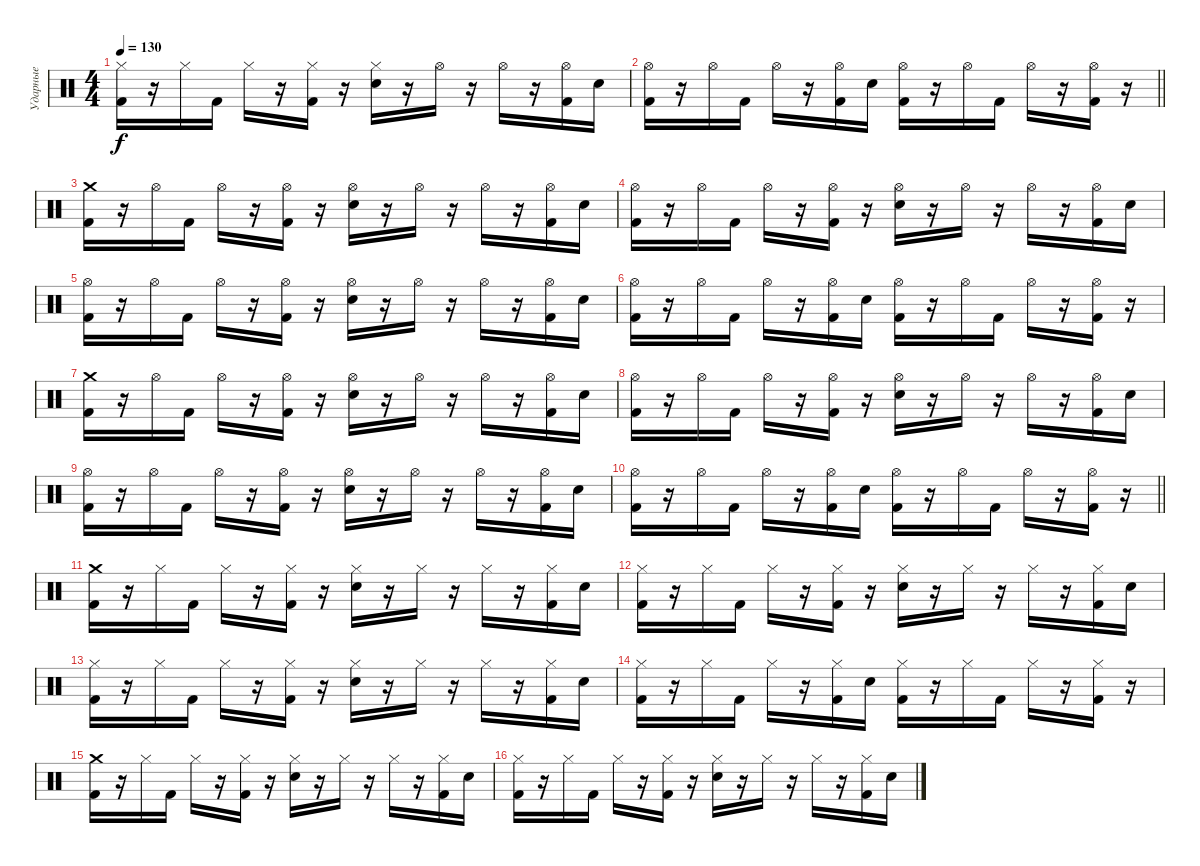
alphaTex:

\track ("Ударные" "Ударные") {instrument percussion}
\staff {score}
\articulation defaults
\ts (4 4)
\tempo 130
\clef neutral
\ks c
("Hi-Hat (closed)" "Kick (hit) 2").16{dy f} r.16 "Hi-Hat (closed)".16 "Kick (hit) 2".16 "Hi-Hat (closed)".16 r.16 ("Hi-Hat (closed)" "Kick (hit) 2").16 r.16 ("Hi-Hat (closed)" "Electric Snare (hit)").16 r.16 "Hi-Hat (open)".16{volume 6} r.16 "Hi-Hat (open)".16{volume 9} r.16 ("Hi-Hat (open)" "Kick (hit) 2").16{volume 9} "Electric Snare (hit)".16 |
\barLineRight lightlight
("Hi-Hat (open)" "Kick (hit) 2").16{volume 10} r.16 "Hi-Hat (open)".16{volume 10} "Kick (hit) 2".16 "Hi-Hat (open)".16{volume 11} r.16 ("Hi-Hat (open)" "Kick (hit) 2").16{volume 11} "Electric Snare (hit)".16 ("Hi-Hat (open)" "Kick (hit) 2").16{volume 12} r.16 "Hi-Hat (open)".16{volume 13} "Kick (hit) 2".16 "Hi-Hat (open)".16{volume 16} r.16 ("Hi-Hat (open)" "Kick (hit) 2").16{volume 15} r.16 |
\section ("" "")
("Crash medium (hit)" "Kick (hit) 2").16 r.16 "Hi-Hat (open)".16 "Kick (hit) 2".16 "Hi-Hat (open)".16 r.16 ("Hi-Hat (open)" "Kick (hit) 2").16 r.16 ("Hi-Hat (open)" "Electric Snare (hit)").16 r.16 "Hi-Hat (open)".16 r.16 "Hi-Hat (open)".16 r.16 ("Hi-Hat (open)" "Kick (hit) 2").16 "Electric Snare (hit)".16 |
("Hi-Hat (open)" "Kick (hit) 2").16 r.16 "Hi-Hat (open)".16 "Kick (hit) 2".16 "Hi-Hat (open)".16 r.16 ("Hi-Hat (open)" "Kick (hit) 2").16 r.16 ("Hi-Hat (open)" "Electric Snare (hit)").16 r.16 "Hi-Hat (open)".16 r.16 "Hi-Hat (open)".16 r.16 ("Hi-Hat (open)" "Kick (hit) 2").16 "Electric Snare (hit)".16 |
("Hi-Hat (open)" "Kick (hit) 2").16 r.16 "Hi-Hat (open)".16 "Kick (hit) 2".16 "Hi-Hat (open)".16 r.16 ("Hi-Hat (open)" "Kick (hit) 2").16 r.16 ("Hi-Hat (open)" "Electric Snare (hit)").16 r.16 "Hi-Hat (open)".16 r.16 "Hi-Hat (open)".16 r.16 ("Hi-Hat (open)" "Kick (hit) 2").16 "Electric Snare (hit)".16 |
("Hi-Hat (open)" "Kick (hit) 2").16 r.16 "Hi-Hat (open)".16 "Kick (hit) 2".16 "Hi-Hat (open)".16 r.16 ("Hi-Hat (open)" "Kick (hit) 2").16 "Electric Snare (hit)".16 ("Hi-Hat (open)" "Kick (hit) 2").16 r.16 "Hi-Hat (open)".16 "Kick (hit) 2".16 "Hi-Hat (open)".16 r.16 ("Hi-Hat (open)" "Kick (hit) 2").16 r.16 |
("Crash medium (hit)" "Kick (hit) 2").16 r.16 "Hi-Hat (open)".16 "Kick (hit) 2".16 "Hi-Hat (open)".16 r.16 ("Hi-Hat (open)" "Kick (hit) 2").16 r.16 ("Hi-Hat (open)" "Electric Snare (hit)").16 r.16 "Hi-Hat (open)".16 r.16 "Hi-Hat (open)".16 r.16 ("Hi-Hat (open)" "Kick (hit) 2").16 "Electric Snare (hit)".16 |
("Hi-Hat (open)" "Kick (hit) 2").16 r.16 "Hi-Hat (open)".16 "Kick (hit) 2".16 "Hi-Hat (open)".16 r.16 ("Hi-Hat (open)" "Kick (hit) 2").16 r.16 ("Hi-Hat (open)" "Electric Snare (hit)").16 r.16 "Hi-Hat (open)".16 r.16 "Hi-Hat (open)".16 r.16 ("Hi-Hat (open)" "Kick (hit) 2").16 "Electric Snare (hit)".16 |
("Hi-Hat (open)" "Kick (hit) 2").16 r.16 "Hi-Hat (open)".16 "Kick (hit) 2".16 "Hi-Hat (open)".16 r.16 ("Hi-Hat (open)" "Kick (hit) 2").16 r.16 ("Hi-Hat (open)" "Electric Snare (hit)").16 r.16 "Hi-Hat (open)".16 r.16 "Hi-Hat (open)".16 r.16 ("Hi-Hat (open)" "Kick (hit) 2").16 "Electric Snare (hit)".16 |
\barLineRight lightlight
("Hi-Hat (open)" "Kick (hit) 2").16 r.16 "Hi-Hat (open)".16 "Kick (hit) 2".16 "Hi-Hat (open)".16 r.16 ("Hi-Hat (open)" "Kick (hit) 2").16 "Electric Snare (hit)".16 ("Hi-Hat (open)" "Kick (hit) 2").16 r.16 "Hi-Hat (open)".16 "Kick (hit) 2".16 "Hi-Hat (open)".16 r.16 ("Hi-Hat (open)" "Kick (hit) 2").16 r.16 |
\section ("" "")
("Crash medium (hit)" "Kick (hit) 2").16 r.16 "Hi-Hat (closed)".16 "Kick (hit) 2".16 "Hi-Hat (closed)".16 r.16 ("Hi-Hat (closed)" "Kick (hit) 2").16 r.16 ("Hi-Hat (closed)" "Electric Snare (hit)").16 r.16 "Hi-Hat (closed)".16 r.16 "Hi-Hat (closed)".16 r.16 ("Hi-Hat (closed)" "Kick (hit) 2").16 "Electric Snare (hit)".16 |
("Hi-Hat (closed)" "Kick (hit) 2").16 r.16 "Hi-Hat (closed)".16 "Kick (hit) 2".16 "Hi-Hat (closed)".16 r.16 ("Hi-Hat (closed)" "Kick (hit) 2").16 r.16 ("Hi-Hat (closed)" "Electric Snare (hit)").16 r.16 "Hi-Hat (closed)".16 r.16 "Hi-Hat (closed)".16 r.16 ("Hi-Hat (closed)" "Kick (hit) 2").16 "Electric Snare (hit)".16 |
("Hi-Hat (closed)" "Kick (hit) 2").16 r.16 "Hi-Hat (closed)".16 "Kick (hit) 2".16 "Hi-Hat (closed)".16 r.16 ("Hi-Hat (closed)" "Kick (hit) 2").16 r.16 ("Hi-Hat (closed)" "Electric Snare (hit)").16 r.16 "Hi-Hat (closed)".16 r.16 "Hi-Hat (closed)".16 r.16 ("Hi-Hat (closed)" "Kick (hit) 2").16 "Electric Snare (hit)".16 |
("Hi-Hat (closed)" "Kick (hit) 2").16 r.16 "Hi-Hat (closed)".16 "Kick (hit) 2".16 "Hi-Hat (closed)".16 r.16 ("Hi-Hat (closed)" "Kick (hit) 2").16 "Electric Snare (hit)".16 ("Hi-Hat (closed)" "Kick (hit) 2").16 r.16 "Hi-Hat (closed)".16 "Kick (hit) 2".16 "Hi-Hat (closed)".16 r.16 ("Hi-Hat (closed)" "Kick (hit) 2").16 r.16 |
("Crash medium (hit)" "Kick (hit) 2").16 r.16 "Hi-Hat (closed)".16 "Kick (hit) 2".16 "Hi-Hat (closed)".16 r.16 ("Hi-Hat (closed)" "Kick (hit) 2").16 r.16 ("Hi-Hat (closed)" "Electric Snare (hit)").16 r.16 "Hi-Hat (closed)".16 r.16 "Hi-Hat (closed)".16 r.16 ("Hi-Hat (closed)" "Kick (hit) 2").16 "Electric Snare (hit)".16 |
("Hi-Hat (closed)" "Kick (hit) 2").16 r.16 "Hi-Hat (closed)".16 "Kick (hit) 2".16 "Hi-Hat (closed)".16 r.16 ("Hi-Hat (closed)" "Kick (hit) 2").16 r.16 ("Hi-Hat (closed)" "Electric Snare (hit)").16 r.16 "Hi-Hat (closed)".16 r.16 "Hi-Hat (closed)".16 r.16 ("Hi-Hat (closed)" "Kick (hit) 2").16 "Electric Snare (hit)".16
